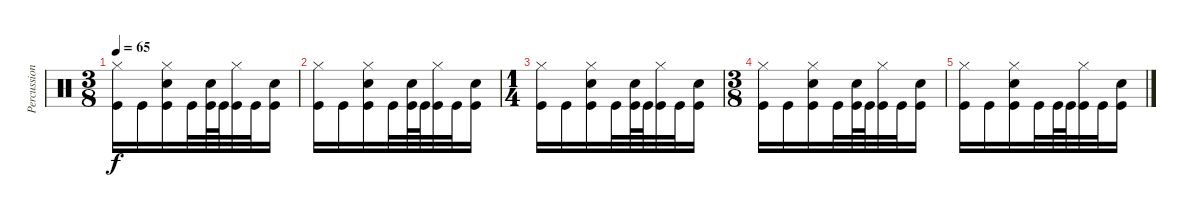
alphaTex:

\track ("Percussion" "Percussion") {instrument percussion}
\staff {score}
\articulation defaults
\ts (3 8)
\tempo 65
\clef neutral
\ks c
("Hi-Hat (closed)" "Kick (hit)").16{dy f} "Kick (hit)".16 ("Hi-Hat (closed)" "Electric Snare (hit)" "Kick (hit)").16 "Kick (hit)".32 ("Electric Snare (hit)" "Kick (hit)").64 "Kick (hit)".64 ("Hi-Hat (closed)" "Kick (hit)").32 "Kick (hit)".32 ("Electric Snare (hit)" "Kick (hit)").16 |
("Hi-Hat (closed)" "Kick (hit)").16 "Kick (hit)".16 ("Hi-Hat (closed)" "Electric Snare (hit)" "Kick (hit)").16 "Kick (hit)".32 ("Electric Snare (hit)" "Kick (hit)").64 "Kick (hit)".64 ("Hi-Hat (closed)" "Kick (hit)").32 "Kick (hit)".32 ("Electric Snare (hit)" "Kick (hit)").16 |
\ts (1 4)
("Hi-Hat (closed)" "Kick (hit)").16 "Kick (hit)".16 ("Hi-Hat (closed)" "Electric Snare (hit)" "Kick (hit)").16 "Kick (hit)".32 ("Electric Snare (hit)" "Kick (hit)").64 "Kick (hit)".64 ("Hi-Hat (closed)" "Kick (hit)").32 "Kick (hit)".32 ("Electric Snare (hit)" "Kick (hit)").16 |
\ts (3 8)
("Hi-Hat (closed)" "Kick (hit)").16 "Kick (hit)".16 ("Hi-Hat (closed)" "Electric Snare (hit)" "Kick (hit)").16 "Kick (hit)".32 ("Electric Snare (hit)" "Kick (hit)").64 "Kick (hit)".64 ("Hi-Hat (closed)" "Kick (hit)").32 "Kick (hit)".32 ("Electric Snare (hit)" "Kick (hit)").16 |
("Hi-Hat (closed)" "Kick (hit)").16 "Kick (hit)".16 ("Hi-Hat (closed)" "Electric Snare (hit)" "Kick (hit)").16 "Kick (hit)".32 "Kick (hit)".64 "Kick (hit)".64 ("Hi-Hat (closed)" "Kick (hit)").32 "Kick (hit)".32 ("Electric Snare (hit)" "Kick (hit)").16
